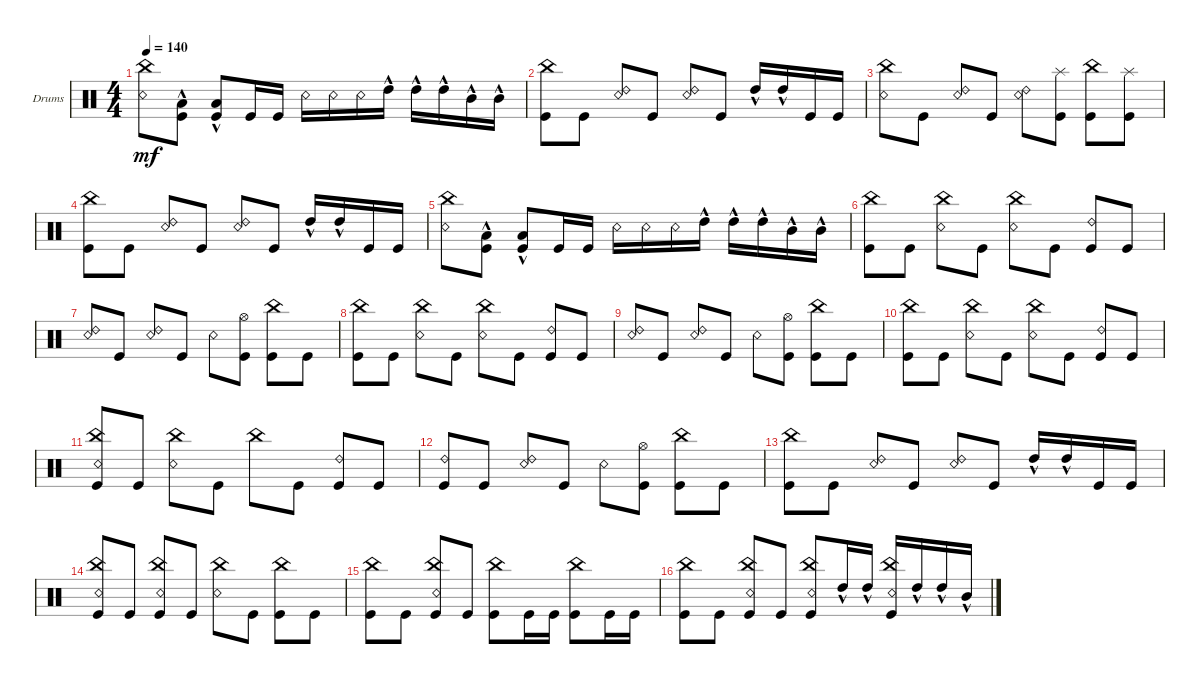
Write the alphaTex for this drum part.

\defaultSystemsLayout 4
\bracketExtendMode groupsimilarinstruments
\firstSystemTrackNameOrientation horizontal
\otherSystemsTrackNameOrientation horizontal
\track ("Drumkit" "Drums") {instrument percussion}
\staff {score}
\articulation defaults
\ts (4 4)
\tempo 140
\clef neutral
\ks c
("Snare (rim shot)" "China (hit)").8{dy mf} ("Kick (hit)"{hac} "Low Tom (hit)"{hac}).8 ("Kick (hit)"{hac} "Low Tom (hit)"{hac}).8 "Kick (hit)".16 "Kick (hit)".16 "Snare (rim shot)".16 "Snare (rim shot)".16 "Snare (rim shot)".16 "High Tom (hit)"{hac}.16 "High Tom (hit)"{hac}.16 "High Tom (hit)"{hac}.16 "Mid Tom (hit)"{hac}.16 "Mid Tom (hit)"{hac}.16 |
("China (hit)" "Kick (hit)").8 "Kick (hit)".8 ("Snare (rim shot)" "Ride (bell) 2").8 "Kick (hit)".8 ("Snare (rim shot)" "Ride (bell) 2").8 "Kick (hit)".8 "High Tom (hit)"{hac}.16 "High Tom (hit)"{hac}.16 "Kick (hit)".16 "Kick (hit)".16 |
("China (hit)" "Snare (rim shot)").8 "Kick (hit)".8 ("Snare (rim shot)" "Ride (bell) 2").8 "Kick (hit)".8 ("Snare (rim shot)" "Ride (bell) 2").8 ("Kick (hit)" "Splash (hit)").8 ("China (hit)" "Kick (hit)").8 ("Kick (hit)" "Splash (hit)").8 |
("China (hit)" "Kick (hit)").8 "Kick (hit)".8 ("Snare (rim shot)" "Ride (bell) 2").8 "Kick (hit)".8 ("Snare (rim shot)" "Ride (bell) 2").8 "Kick (hit)".8 "High Tom (hit)"{hac}.16 "High Tom (hit)"{hac}.16 "Kick (hit)".16 "Kick (hit)".16 |
("Snare (rim shot)" "China (hit)").8 ("Kick (hit)"{hac} "Low Tom (hit)"{hac}).8 ("Kick (hit)"{hac} "Low Tom (hit)"{hac}).8 "Kick (hit)".16 "Kick (hit)".16 "Snare (rim shot)".16 "Snare (rim shot)".16 "Snare (rim shot)".16 "High Tom (hit)"{hac}.16 "High Tom (hit)"{hac}.16 "High Tom (hit)"{hac}.16 "Mid Tom (hit)"{hac}.16 "Mid Tom (hit)"{hac}.16 |
("China (hit)" "Kick (hit)").8 "Kick (hit)".8 ("Snare (rim shot)" "China (hit)").8 "Kick (hit)".8 ("Snare (rim shot)" "China (hit)").8 "Kick (hit)".8 ("Kick (hit)" "Ride (bell) 2").8 "Kick (hit)".8 |
("Snare (rim shot)" "Ride (bell) 2").8 "Kick (hit)".8 ("Snare (rim shot)" "Ride (bell) 2").8 "Kick (hit)".8 "Snare (rim shot)".8 ("Hi-Hat (open)" "Kick (hit)").8 ("China (hit)" "Kick (hit)").8 "Kick (hit)".8 |
("China (hit)" "Kick (hit)").8 "Kick (hit)".8 ("Snare (rim shot)" "China (hit)").8 "Kick (hit)".8 ("Snare (rim shot)" "China (hit)").8 "Kick (hit)".8 ("Kick (hit)" "Ride (bell) 2").8 "Kick (hit)".8 |
("Snare (rim shot)" "Ride (bell) 2").8 "Kick (hit)".8 ("Snare (rim shot)" "Ride (bell) 2").8 "Kick (hit)".8 "Snare (rim shot)".8 ("Hi-Hat (open)" "Kick (hit)").8 ("China (hit)" "Kick (hit)").8 "Kick (hit)".8 |
("China (hit)" "Kick (hit)").8 "Kick (hit)".8 ("Snare (rim shot)" "China (hit)").8 "Kick (hit)".8 ("Snare (rim shot)" "China (hit)").8 "Kick (hit)".8 ("Kick (hit)" "Ride (bell) 2").8 "Kick (hit)".8 |
("China (hit)" "Kick (hit)" "Snare (rim shot)").8 "Kick (hit)".8 ("China (hit)" "Snare (rim shot)").8 "Kick (hit)".8 "China (hit)".8 "Kick (hit)".8 ("Kick (hit)" "Ride (bell) 2").8 "Kick (hit)".8 |
("Ride (bell) 2" "Kick (hit)").8 "Kick (hit)".8 ("Snare (rim shot)" "Ride (bell) 2").8 "Kick (hit)".8 "Snare (rim shot)".8 ("Hi-Hat (open)" "Kick (hit)").8 ("China (hit)" "Kick (hit)").8 "Kick (hit)".8 |
("China (hit)" "Kick (hit)").8 "Kick (hit)".8 ("Snare (rim shot)" "Ride (bell) 2").8 "Kick (hit)".8 ("Snare (rim shot)" "Ride (bell) 2").8 "Kick (hit)".8 "High Tom (hit)"{hac}.16 "High Tom (hit)"{hac}.16 "Kick (hit)".16 "Kick (hit)".16 |
("China (hit)" "Snare (rim shot)" "Kick (hit)").8 "Kick (hit)".8 ("Snare (rim shot)" "China (hit)" "Kick (hit)").8 "Kick (hit)".8 ("Snare (rim shot)" "China (hit)").8 "Kick (hit)".8 ("Kick (hit)" "China (hit)").8 "Kick (hit)".8 |
("Kick (hit)" "China (hit)").8 "Kick (hit)".8 ("Kick (hit)" "China (hit)" "Snare (rim shot)").8 "Kick (hit)".8 ("Kick (hit)" "China (hit)").8 "Kick (hit)".16 "Kick (hit)".16 ("Kick (hit)" "China (hit)").8 "Kick (hit)".16 "Kick (hit)".16 |
("Kick (hit)" "China (hit)").8 "Kick (hit)".8 ("Kick (hit)" "Snare (rim shot)" "China (hit)").8 "Kick (hit)".8 ("Kick (hit)" "Snare (rim shot)" "China (hit)").8 "High Tom (hit)"{hac}.16 "High Tom (hit)"{hac}.16 ("Snare (rim shot)" "China (hit)" "Kick (hit)").16 "High Tom (hit)"{hac}.16 "High Tom (hit)"{hac}.16 "Mid Tom (hit)"{hac}.16
